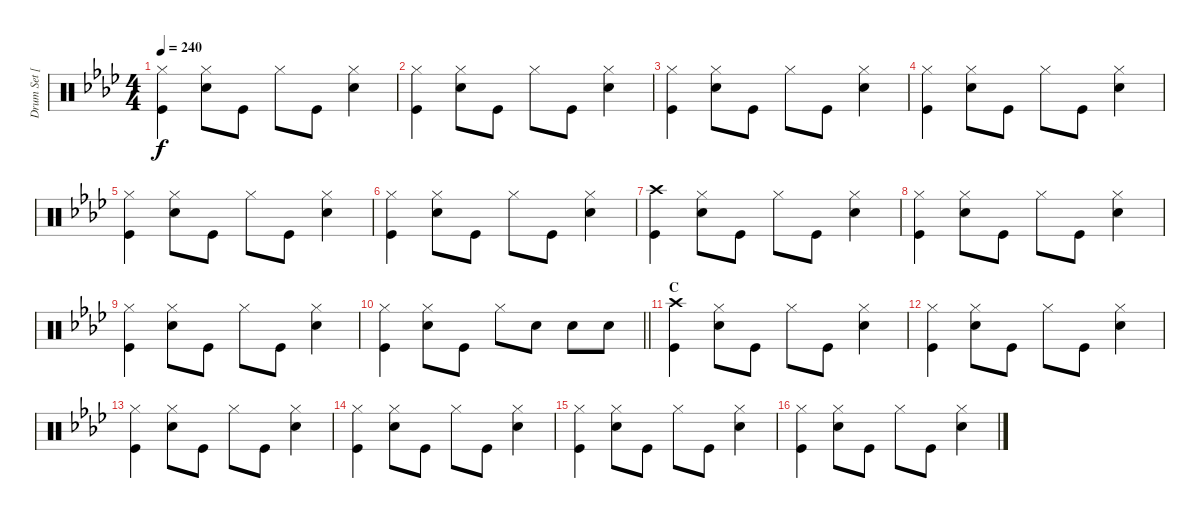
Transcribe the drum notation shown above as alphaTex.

\track ("Drum Set [Ritsu]" "Drum Set [") {instrument percussion}
\staff {score}
\articulation defaults
\ts (4 4)
\tempo 240
\clef neutral
\ks ab
("Hi-Hat (closed)" "Kick (hit)").4{dy f} ("Hi-Hat (closed)" "Snare (hit) 2").8 "Kick (hit)".8 "Hi-Hat (closed)".8 "Kick (hit)".8 ("Hi-Hat (closed)" "Snare (hit) 2").4 |
("Hi-Hat (closed)" "Kick (hit)").4 ("Hi-Hat (closed)" "Snare (hit) 2").8 "Kick (hit)".8 "Hi-Hat (closed)".8 "Kick (hit)".8 ("Hi-Hat (closed)" "Snare (hit) 2").4 |
("Hi-Hat (closed)" "Kick (hit)").4 ("Hi-Hat (closed)" "Snare (hit) 2").8 "Kick (hit)".8 "Hi-Hat (closed)".8 "Kick (hit)".8 ("Hi-Hat (closed)" "Snare (hit) 2").4 |
("Hi-Hat (closed)" "Kick (hit)").4 ("Hi-Hat (closed)" "Snare (hit) 2").8 "Kick (hit)".8 "Hi-Hat (closed)".8 "Kick (hit)".8 ("Hi-Hat (closed)" "Snare (hit) 2").4 |
("Hi-Hat (closed)" "Kick (hit)").4 ("Hi-Hat (closed)" "Snare (hit) 2").8 "Kick (hit)".8 "Hi-Hat (closed)".8 "Kick (hit)".8 ("Hi-Hat (closed)" "Snare (hit) 2").4 |
("Hi-Hat (closed)" "Kick (hit)").4 ("Hi-Hat (closed)" "Snare (hit) 2").8 "Kick (hit)".8 "Hi-Hat (closed)".8 "Kick (hit)".8 ("Hi-Hat (closed)" "Snare (hit) 2").4 |
("Crash high (hit)" "Kick (hit)").4 ("Hi-Hat (closed)" "Snare (hit) 2").8 "Kick (hit)".8 "Hi-Hat (closed)".8 "Kick (hit)".8 ("Hi-Hat (closed)" "Snare (hit) 2").4 |
("Hi-Hat (closed)" "Kick (hit)").4 ("Hi-Hat (closed)" "Snare (hit) 2").8 "Kick (hit)".8 "Hi-Hat (closed)".8 "Kick (hit)".8 ("Hi-Hat (closed)" "Snare (hit) 2").4 |
("Hi-Hat (closed)" "Kick (hit)").4 ("Hi-Hat (closed)" "Snare (hit) 2").8 "Kick (hit)".8 "Hi-Hat (closed)".8 "Kick (hit)".8 ("Hi-Hat (closed)" "Snare (hit) 2").4 |
\barLineRight lightlight
("Hi-Hat (closed)" "Kick (hit)").4 ("Hi-Hat (closed)" "Snare (hit) 2").8 "Kick (hit)".8 "Hi-Hat (closed)".8 "Snare (hit) 2".8 "Snare (hit) 2".8 "Snare (hit) 2".8 |
\section ("" "C")
("Crash high (hit)" "Kick (hit)").4 ("Hi-Hat (closed)" "Snare (hit) 2").8 "Kick (hit)".8 "Hi-Hat (closed)".8 "Kick (hit)".8 ("Hi-Hat (closed)" "Snare (hit) 2").4 |
("Hi-Hat (closed)" "Kick (hit)").4 ("Hi-Hat (closed)" "Snare (hit) 2").8 "Kick (hit)".8 "Hi-Hat (closed)".8 "Kick (hit)".8 ("Hi-Hat (closed)" "Snare (hit) 2").4 |
("Hi-Hat (closed)" "Kick (hit)").4 ("Hi-Hat (closed)" "Snare (hit) 2").8 "Kick (hit)".8 "Hi-Hat (closed)".8 "Kick (hit)".8 ("Hi-Hat (closed)" "Snare (hit) 2").4 |
("Hi-Hat (closed)" "Kick (hit)").4 ("Hi-Hat (closed)" "Snare (hit) 2").8 "Kick (hit)".8 "Hi-Hat (closed)".8 "Kick (hit)".8 ("Hi-Hat (closed)" "Snare (hit) 2").4 |
("Hi-Hat (closed)" "Kick (hit)").4 ("Hi-Hat (closed)" "Snare (hit) 2").8 "Kick (hit)".8 "Hi-Hat (closed)".8 "Kick (hit)".8 ("Hi-Hat (closed)" "Snare (hit) 2").4 |
("Hi-Hat (closed)" "Kick (hit)").4 ("Hi-Hat (closed)" "Snare (hit) 2").8 "Kick (hit)".8 "Hi-Hat (closed)".8 "Kick (hit)".8 ("Hi-Hat (closed)" "Snare (hit) 2").4
